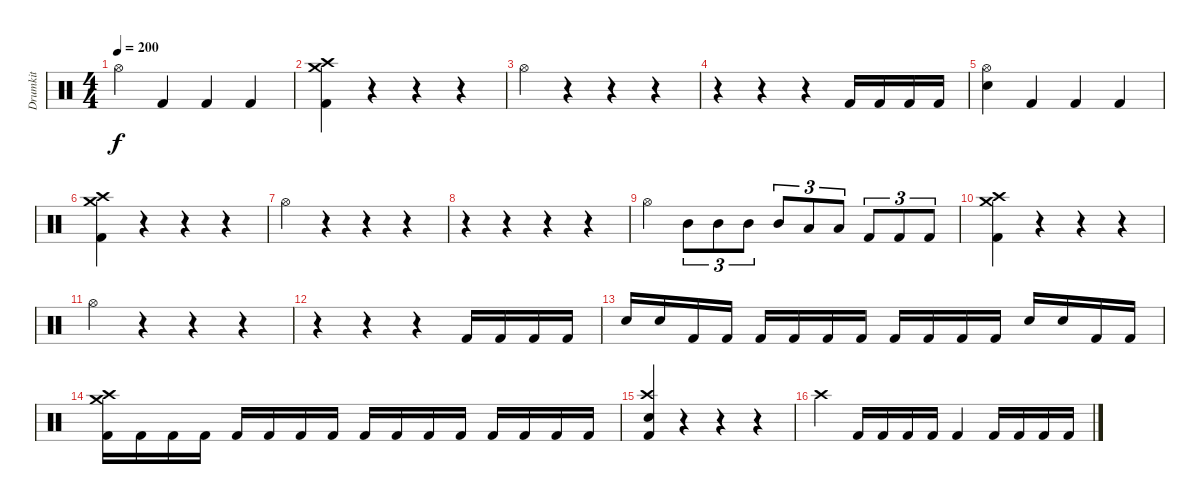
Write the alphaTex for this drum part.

\track ("Drumkit" "Drumkit") {instrument percussion}
\staff {score}
\articulation defaults
\ts (4 4)
\tempo 200
\clef neutral
\ks c "Hi-Hat (open)".4{dy f} "Kick (hit) 2".4 "Kick (hit) 2".4 "Kick (hit) 2".4
|
("Crash medium (hit)" "Crash high (hit)" "Kick (hit) 2").4 r.4 r.4 r.4 |
"Hi-Hat (open)".4 r.4 r.4 r.4 |
r.4 r.4 r.4 "Kick (hit) 2".16 "Kick (hit) 2".16 "Kick (hit) 2".16 "Kick (hit) 2".16 |
("Hi-Hat (open)" "Electric Snare (hit)").4 "Kick (hit) 2".4 "Kick (hit) 2".4 "Kick (hit) 2".4 |
("Crash medium (hit)" "Crash high (hit)" "Kick (hit) 2").4 r.4 r.4 r.4 |
"Hi-Hat (open)".4 r.4 r.4 r.4 |
r.4 r.4 r.4 r.4 |
"Hi-Hat (open)".4 "Mid Tom (hit)".8{tu (3 2)} "Mid Tom (hit)".8{tu (3 2)} "Mid Tom (hit)".8{tu (3 2)} "Mid Tom (hit)".8{tu (3 2)} "Low Tom (hit)".8{tu (3 2)} "Low Tom (hit)".8{tu (3 2)} "Kick (hit) 2".8{tu (3 2)} "Kick (hit) 2".8{tu (3 2)} "Kick (hit) 2".8{tu (3 2)} |
("Crash medium (hit)" "Crash high (hit)" "Kick (hit) 2").4 r.4 r.4 r.4 |
"Hi-Hat (open)".4 r.4 r.4 r.4 |
r.4 r.4 r.4 "Kick (hit) 2".16 "Kick (hit) 2".16 "Kick (hit) 2".16 "Kick (hit) 2".16 |
"Electric Snare (hit)".16 "Electric Snare (hit)".16 "Kick (hit) 2".16 "Kick (hit) 2".16 "Kick (hit) 2".16 "Kick (hit) 2".16 "Kick (hit) 2".16 "Kick (hit) 2".16 "Kick (hit) 2".16 "Kick (hit) 2".16 "Kick (hit) 2".16 "Kick (hit) 2".16 "Electric Snare (hit)".16 "Electric Snare (hit)".16 "Kick (hit) 2".16 "Kick (hit) 2".16 |
("Crash medium (hit)" "Crash high (hit)" "Kick (hit) 2").16 "Kick (hit) 2".16 "Kick (hit) 2".16 "Kick (hit) 2".16 "Kick (hit) 2".16 "Kick (hit) 2".16 "Kick (hit) 2".16 "Kick (hit) 2".16 "Kick (hit) 2".16 "Kick (hit) 2".16 "Kick (hit) 2".16 "Kick (hit) 2".16 "Kick (hit) 2".16 "Kick (hit) 2".16 "Kick (hit) 2".16 "Kick (hit) 2".16 |
("Crash high (hit)" "Electric Snare (hit)" "Kick (hit) 2").4 r.4 r.4 r.4 |
"Crash high (hit)".4 "Kick (hit) 2".16 "Kick (hit) 2".16 "Kick (hit) 2".16 "Kick (hit) 2".16 "Kick (hit) 2".4 "Kick (hit) 2".16 "Kick (hit) 2".16 "Kick (hit) 2".16 "Kick (hit) 2".16
